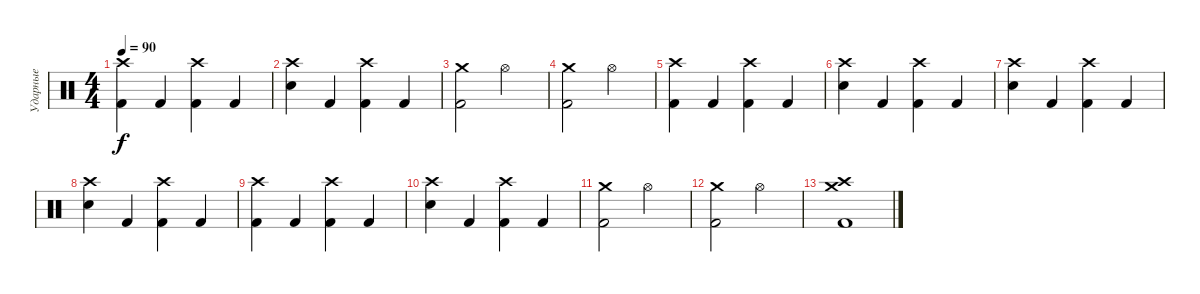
\track ("Ударные" "Ударные") {instrument percussion}
\staff {score}
\articulation defaults
\ts (4 4)
\tempo 90
\clef neutral
\ks c
("Crash high (hit)" "Kick (hit) 2").4{dy f} "Kick (hit) 2".4 ("Crash high (hit)" "Kick (hit) 2").4 "Kick (hit) 2".4 |
("Crash high (hit)" "Electric Snare (hit)").4 "Kick (hit) 2".4 ("Crash high (hit)" "Kick (hit) 2").4 "Kick (hit) 2".4 |
("Crash medium (hit)" "Kick (hit) 2").2 "Hi-Hat (open)".2 |
("Crash medium (hit)" "Kick (hit) 2").2 "Hi-Hat (open)".2 |
("Crash high (hit)" "Kick (hit) 2").4 "Kick (hit) 2".4 ("Crash high (hit)" "Kick (hit) 2").4 "Kick (hit) 2".4 |
("Crash high (hit)" "Electric Snare (hit)").4 "Kick (hit) 2".4 ("Crash high (hit)" "Kick (hit) 2").4 "Kick (hit) 2".4 |
("Crash high (hit)" "Electric Snare (hit)").4 "Kick (hit) 2".4 ("Crash high (hit)" "Kick (hit) 2").4 "Kick (hit) 2".4 |
("Crash high (hit)" "Electric Snare (hit)").4 "Kick (hit) 2".4 ("Crash high (hit)" "Kick (hit) 2").4 "Kick (hit) 2".4 |
("Crash high (hit)" "Kick (hit) 2").4 "Kick (hit) 2".4 ("Crash high (hit)" "Kick (hit) 2").4 "Kick (hit) 2".4 |
("Crash high (hit)" "Electric Snare (hit)").4 "Kick (hit) 2".4 ("Crash high (hit)" "Kick (hit) 2").4 "Kick (hit) 2".4 |
("Crash medium (hit)" "Kick (hit) 2").2 "Hi-Hat (open)".2 |
("Crash medium (hit)" "Kick (hit) 2").2 "Hi-Hat (open)".2 |
("Crash high (hit)" "Crash medium (hit)" "Kick (hit) 2").1
